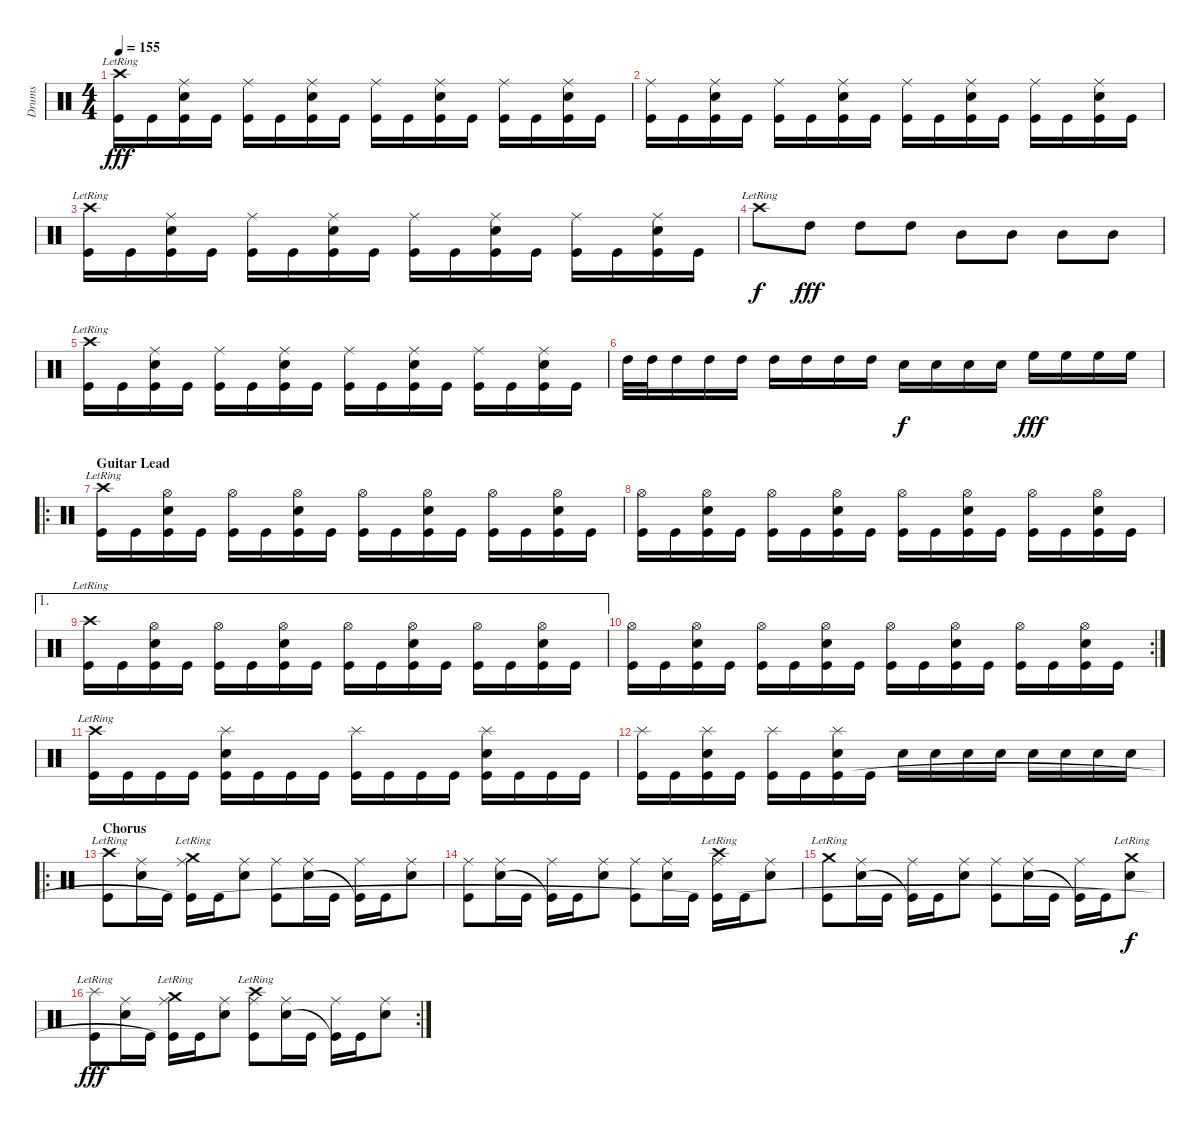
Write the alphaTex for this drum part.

\track ("Drums" "Drums") {instrument percussion}
\staff {score}
\articulation defaults
\ts (4 4)
\tempo 155
\clef neutral
\ks c
("Crash high (hit)"{lr} "Kick (hit)").16{dy fff} "Kick (hit)".16 ("Ride (middle)" "Snare (hit) 2" "Kick (hit)").16 "Kick (hit)".16 ("Ride (middle)" "Kick (hit)").16 "Kick (hit)".16 ("Ride (middle)" "Snare (hit) 2" "Kick (hit)").16 "Kick (hit)".16 ("Ride (middle)" "Kick (hit)").16 "Kick (hit)".16 ("Ride (middle)" "Snare (hit) 2" "Kick (hit)").16 "Kick (hit)".16 ("Ride (middle)" "Kick (hit)").16 "Kick (hit)".16 ("Ride (middle)" "Snare (hit) 2" "Kick (hit)").16 "Kick (hit)".16 |
("Ride (middle)" "Kick (hit)").16 "Kick (hit)".16 ("Ride (middle)" "Snare (hit) 2" "Kick (hit)").16 "Kick (hit)".16 ("Ride (middle)" "Kick (hit)").16 "Kick (hit)".16 ("Ride (middle)" "Snare (hit) 2" "Kick (hit)").16 "Kick (hit)".16 ("Ride (middle)" "Kick (hit)").16 "Kick (hit)".16 ("Ride (middle)" "Snare (hit) 2" "Kick (hit)").16 "Kick (hit)".16 ("Ride (middle)" "Kick (hit)").16 "Kick (hit)".16 ("Ride (middle)" "Snare (hit) 2" "Kick (hit)").16 "Kick (hit)".16 |
("Crash high (hit)"{lr} "Kick (hit)").16 "Kick (hit)".16 ("Ride (middle)" "Snare (hit) 2" "Kick (hit)").16 "Kick (hit)".16 ("Ride (middle)" "Kick (hit)").16 "Kick (hit)".16 ("Ride (middle)" "Snare (hit) 2" "Kick (hit)").16 "Kick (hit)".16 ("Ride (middle)" "Kick (hit)").16 "Kick (hit)".16 ("Ride (middle)" "Snare (hit) 2" "Kick (hit)").16 "Kick (hit)".16 ("Ride (middle)" "Kick (hit)").16 "Kick (hit)".16 ("Ride (middle)" "Snare (hit) 2" "Kick (hit)").16 "Kick (hit)".16 |
"Crash high (hit)"{lr}.8{dy f} "High Tom (hit)".8{dy fff balance 0} "High Tom (hit)".8{balance 2} "High Tom (hit)".8{balance 4} "Mid Tom (hit)".8{balance 8} "Mid Tom (hit)".8{balance 10} "Mid Tom (hit)".8{balance 12} "Mid Tom (hit)".8{balance 16} |
("Crash high (hit)"{lr} "Kick (hit)").16{balance 8} "Kick (hit)".16 ("Ride (middle)" "Snare (hit) 2" "Kick (hit)").16 "Kick (hit)".16 ("Ride (middle)" "Kick (hit)").16 "Kick (hit)".16 ("Ride (middle)" "Snare (hit) 2" "Kick (hit)").16 "Kick (hit)".16 ("Ride (middle)" "Kick (hit)").16 "Kick (hit)".16 ("Ride (middle)" "Snare (hit) 2" "Kick (hit)").16 "Kick (hit)".16 ("Ride (middle)" "Kick (hit)").16 "Kick (hit)".16 ("Ride (middle)" "Snare (hit) 2" "Kick (hit)").16 "Kick (hit)".16 |
"High Tom (hit)".32{balance 3} "High Tom (hit)".32 "High Tom (hit)".16 "High Tom (hit)".16 "High Tom (hit)".16 "High Tom (hit)".16 "High Tom (hit)".16 "High Tom (hit)".16 "High Tom (hit)".16 "Snare (hit) 2".16{dy f balance 8} "Snare (hit) 2".16 "Snare (hit) 2".16 "Snare (hit) 2".16 "High Floor Tom (hit)".16{dy fff balance 13} "High Floor Tom (hit)".16 "High Floor Tom (hit)".16 "High Floor Tom (hit)".16 |
\ro
\section ("" "Guitar Lead")
("Crash high (hit)"{lr} "Kick (hit)").16{balance 8} "Kick (hit)".16 ("Hi-Hat (open)" "Snare (hit) 2" "Kick (hit)").16 "Kick (hit)".16 ("Hi-Hat (open)" "Kick (hit)").16 "Kick (hit)".16 ("Hi-Hat (open)" "Snare (hit) 2" "Kick (hit)").16 "Kick (hit)".16 ("Hi-Hat (open)" "Kick (hit)").16 "Kick (hit)".16 ("Hi-Hat (open)" "Snare (hit) 2" "Kick (hit)").16 "Kick (hit)".16 ("Hi-Hat (open)" "Kick (hit)").16 "Kick (hit)".16 ("Hi-Hat (open)" "Snare (hit) 2" "Kick (hit)").16 "Kick (hit)".16 |
("Hi-Hat (open)" "Kick (hit)").16 "Kick (hit)".16 ("Hi-Hat (open)" "Snare (hit) 2" "Kick (hit)").16 "Kick (hit)".16 ("Hi-Hat (open)" "Kick (hit)").16 "Kick (hit)".16 ("Hi-Hat (open)" "Snare (hit) 2" "Kick (hit)").16 "Kick (hit)".16 ("Hi-Hat (open)" "Kick (hit)").16 "Kick (hit)".16 ("Hi-Hat (open)" "Snare (hit) 2" "Kick (hit)").16 "Kick (hit)".16 ("Hi-Hat (open)" "Kick (hit)").16 "Kick (hit)".16 ("Hi-Hat (open)" "Snare (hit) 2" "Kick (hit)").16 "Kick (hit)".16 |
\ae 1
("Crash high (hit)"{lr} "Kick (hit)").16 "Kick (hit)".16 ("Hi-Hat (open)" "Snare (hit) 2" "Kick (hit)").16 "Kick (hit)".16 ("Hi-Hat (open)" "Kick (hit)").16 "Kick (hit)".16 ("Hi-Hat (open)" "Snare (hit) 2" "Kick (hit)").16 "Kick (hit)".16 ("Hi-Hat (open)" "Kick (hit)").16 "Kick (hit)".16 ("Hi-Hat (open)" "Snare (hit) 2" "Kick (hit)").16 "Kick (hit)".16 ("Hi-Hat (open)" "Kick (hit)").16 "Kick (hit)".16 ("Hi-Hat (open)" "Snare (hit) 2" "Kick (hit)").16 "Kick (hit)".16 |
\rc 2
("Hi-Hat (open)" "Kick (hit)").16 "Kick (hit)".16 ("Hi-Hat (open)" "Snare (hit) 2" "Kick (hit)").16 "Kick (hit)".16 ("Hi-Hat (open)" "Kick (hit)").16 "Kick (hit)".16 ("Hi-Hat (open)" "Snare (hit) 2" "Kick (hit)").16 "Kick (hit)".16 ("Hi-Hat (open)" "Kick (hit)").16 "Kick (hit)".16 ("Hi-Hat (open)" "Snare (hit) 2" "Kick (hit)").16 "Kick (hit)".16 ("Hi-Hat (open)" "Kick (hit)").16 "Kick (hit)".16 ("Hi-Hat (open)" "Snare (hit) 2" "Kick (hit)").16 "Kick (hit)".16 |
("Crash high (hit)"{lr} "Kick (hit)").16 "Kick (hit)".16 "Kick (hit)".16 "Kick (hit)".16 ("Splash (hit)" "Snare (hit) 2" "Kick (hit)").16 "Kick (hit)".16 "Kick (hit)".16 "Kick (hit)".16 ("Splash (hit)" "Kick (hit)").16 "Kick (hit)".16 "Kick (hit)".16 "Kick (hit)".16 ("Splash (hit)" "Snare (hit) 2" "Kick (hit)").16 "Kick (hit)".16 "Kick (hit)".16 "Kick (hit)".16 |
("Splash (hit)" "Kick (hit)").16 "Kick (hit)".16 ("Splash (hit)" "Snare (hit) 2" "Kick (hit)").16 "Kick (hit)".16 ("Splash (hit)" "Kick (hit)").16 "Kick (hit)".16 ("Splash (hit)" "Snare (hit) 2" "Kick (hit)").16 "Kick (hit)".16 "Snare (hit) 2".16 "Snare (hit) 2".16 "Snare (hit) 2".16 "Snare (hit) 2".16 "Snare (hit) 2".16 "Snare (hit) 2".16 "Snare (hit) 2".16 "Snare (hit) 2".16 |
\ro
\section ("" "Chorus")
("Crash high (hit)"{lr} "Kick (hit)").8 ("Ride (middle)" "Snare (hit) 2").16 "Kick (hit)".16 ("Crash medium (hit)"{lr} "Ride (middle)" "Kick (hit)"{t}).16 "Kick (hit)".16 ("Ride (middle)" "Snare (hit) 2").8 ("Ride (middle)" "Kick (hit)").8 ("Ride (middle)" "Snare (hit) 2").16 "Kick (hit)".16 ("Ride (middle)" "Kick (hit)"{t}).16 "Kick (hit)".16 ("Ride (middle)" "Snare (hit) 2").8 |
("Ride (middle)" "Kick (hit)").8 ("Ride (middle)" "Snare (hit) 2").16 "Kick (hit)".16 ("Ride (middle)" "Kick (hit)"{t}).16 "Kick (hit)".16 ("Ride (middle)" "Snare (hit) 2").8 ("Ride (middle)" "Kick (hit)").8 ("Ride (middle)" "Snare (hit) 2").16 "Kick (hit)".16 ("Crash high (hit)"{lr} "Ride (middle)" "Kick (hit)"{t}).16 "Kick (hit)".16 ("Ride (middle)" "Snare (hit) 2").8 |
("Crash medium (hit)"{lr} "Kick (hit)").8 ("Ride (middle)" "Snare (hit) 2").16 "Kick (hit)".16 ("Ride (middle)" "Kick (hit)"{t}).16 "Kick (hit)".16 ("Ride (middle)" "Snare (hit) 2").8 ("Ride (middle)" "Kick (hit)").8 ("Ride (middle)" "Snare (hit) 2").16 "Kick (hit)".16 ("Ride (middle)" "Kick (hit)"{t}).16 "Kick (hit)".16 ("Crash medium (hit)"{lr} "Snare (hit) 2").8{dy f} |
\rc 2
("Splash (hit)"{lr} "Kick (hit)").8{dy fff} ("Ride (middle)" "Snare (hit) 2").16 "Kick (hit)".16 ("Crash medium (hit)"{lr} "Ride (middle)" "Kick (hit)"{t}).16 "Kick (hit)".16 ("Ride (middle)" "Snare (hit) 2").8 ("Crash high (hit)"{lr} "Ride (middle)" "Kick (hit)").8 ("Ride (middle)" "Snare (hit) 2").16 "Kick (hit)".16 ("Ride (middle)" "Kick (hit)"{t}).16 "Kick (hit)".16 ("Ride (middle)" "Snare (hit) 2").8
